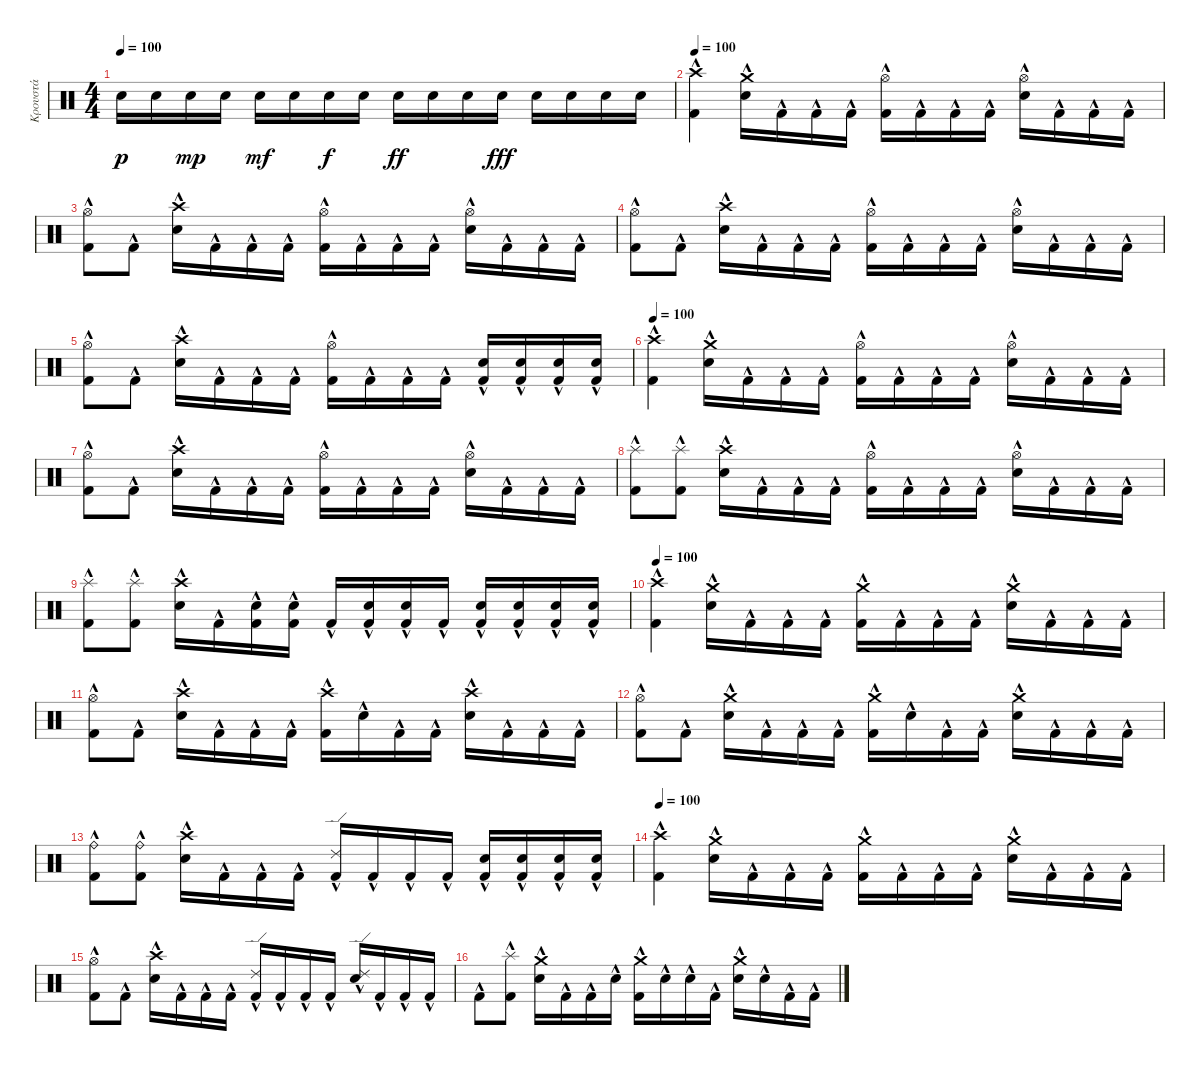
\track ("Κρουστά" "Κρουστά") {instrument percussion}
\staff {score}
\articulation defaults
\ts (4 4)
\tempo 100
\clef neutral
\ks c "Electric Snare (hit)".16{dy p} "Electric Snare (hit)".16 "Electric Snare (hit)".16{dy mp} "Electric Snare (hit)".16 "Electric Snare (hit)".16{dy mf} "Electric Snare (hit)".16 "Electric Snare (hit)".16{dy f} "Electric Snare (hit)".16 "Electric Snare (hit)".16{dy ff} "Electric Snare (hit)".16 "Electric Snare (hit)".16 "Electric Snare (hit)".16{dy fff} "Electric Snare (hit)".16 "Electric Snare (hit)".16 "Electric Snare (hit)".16 "Electric Snare (hit)".16
|
\tempo 100
("Kick (hit) 2"{hac} "Crash high (hit)").4 ("Electric Snare (hit)"{hac} "Crash medium (hit)").16 "Kick (hit) 2"{hac}.16 "Kick (hit) 2"{hac}.16 "Kick (hit) 2"{hac}.16 ("Kick (hit) 2"{hac} "Hi-Hat (open)").16 "Kick (hit) 2"{hac}.16 "Kick (hit) 2"{hac}.16 "Kick (hit) 2"{hac}.16 ("Electric Snare (hit)"{hac} "Hi-Hat (open)").16 "Kick (hit) 2"{hac}.16 "Kick (hit) 2"{hac}.16 "Kick (hit) 2"{hac}.16 |
("Kick (hit) 2"{hac} "Hi-Hat (open)").8 "Kick (hit) 2"{hac}.8 ("Electric Snare (hit)"{hac} "Crash high (hit)").16 "Kick (hit) 2"{hac}.16 "Kick (hit) 2"{hac}.16 "Kick (hit) 2"{hac}.16 ("Kick (hit) 2"{hac} "Hi-Hat (open)").16 "Kick (hit) 2"{hac}.16 "Kick (hit) 2"{hac}.16 "Kick (hit) 2"{hac}.16 ("Electric Snare (hit)"{hac} "Hi-Hat (open)").16 "Kick (hit) 2"{hac}.16 "Kick (hit) 2"{hac}.16 "Kick (hit) 2"{hac}.16 |
("Kick (hit) 2"{hac} "Hi-Hat (open)").8 "Kick (hit) 2"{hac}.8 ("Electric Snare (hit)"{hac} "Crash high (hit)").16 "Kick (hit) 2"{hac}.16 "Kick (hit) 2"{hac}.16 "Kick (hit) 2"{hac}.16 ("Kick (hit) 2"{hac} "Hi-Hat (open)").16 "Kick (hit) 2"{hac}.16 "Kick (hit) 2"{hac}.16 "Kick (hit) 2"{hac}.16 ("Electric Snare (hit)"{hac} "Hi-Hat (open)").16 "Kick (hit) 2"{hac}.16 "Kick (hit) 2"{hac}.16 "Kick (hit) 2"{hac}.16 |
("Kick (hit) 2"{hac} "Hi-Hat (open)").8 "Kick (hit) 2"{hac}.8 ("Electric Snare (hit)"{hac} "Crash high (hit)").16 "Kick (hit) 2"{hac}.16 "Kick (hit) 2"{hac}.16 "Kick (hit) 2"{hac}.16 ("Kick (hit) 2"{hac} "Hi-Hat (open)").16 "Kick (hit) 2"{hac}.16 "Kick (hit) 2"{hac}.16 "Kick (hit) 2"{hac}.16 ("Electric Snare (hit)"{hac} "Kick (hit) 2"{hac}).16 ("Kick (hit) 2"{hac} "Electric Snare (hit)"{hac}).16 ("Kick (hit) 2"{hac} "Electric Snare (hit)"{hac}).16 ("Kick (hit) 2"{hac} "Electric Snare (hit)"{hac}).16 |
\tempo 100
("Kick (hit) 2"{hac} "Crash high (hit)").4 ("Electric Snare (hit)"{hac} "Crash medium (hit)").16 "Kick (hit) 2"{hac}.16 "Kick (hit) 2"{hac}.16 "Kick (hit) 2"{hac}.16 ("Kick (hit) 2"{hac} "Hi-Hat (open)").16 "Kick (hit) 2"{hac}.16 "Kick (hit) 2"{hac}.16 "Kick (hit) 2"{hac}.16 ("Electric Snare (hit)"{hac} "Hi-Hat (open)").16 "Kick (hit) 2"{hac}.16 "Kick (hit) 2"{hac}.16 "Kick (hit) 2"{hac}.16 |
("Kick (hit) 2"{hac} "Hi-Hat (open)").8 "Kick (hit) 2"{hac}.8 ("Electric Snare (hit)"{hac} "Crash high (hit)").16 "Kick (hit) 2"{hac}.16 "Kick (hit) 2"{hac}.16 "Kick (hit) 2"{hac}.16 ("Kick (hit) 2"{hac} "Hi-Hat (open)").16 "Kick (hit) 2"{hac}.16 "Kick (hit) 2"{hac}.16 "Kick (hit) 2"{hac}.16 ("Electric Snare (hit)"{hac} "Hi-Hat (open)").16 "Kick (hit) 2"{hac}.16 "Kick (hit) 2"{hac}.16 "Kick (hit) 2"{hac}.16 |
("Kick (hit) 2"{hac} "Splash (hit)").8 ("Kick (hit) 2"{hac} "Splash (hit)").8 ("Electric Snare (hit)"{hac} "Crash high (hit)").16 "Kick (hit) 2"{hac}.16 "Kick (hit) 2"{hac}.16 "Kick (hit) 2"{hac}.16 ("Kick (hit) 2"{hac} "Hi-Hat (open)").16 "Kick (hit) 2"{hac}.16 "Kick (hit) 2"{hac}.16 "Kick (hit) 2"{hac}.16 ("Electric Snare (hit)"{hac} "Hi-Hat (open)").16 "Kick (hit) 2"{hac}.16 "Kick (hit) 2"{hac}.16 "Kick (hit) 2"{hac}.16 |
("Kick (hit) 2"{hac} "Splash (hit)").8 ("Kick (hit) 2"{hac} "Splash (hit)").8 ("Electric Snare (hit)"{hac} "Crash high (hit)").16 "Kick (hit) 2"{hac}.16 ("Kick (hit) 2"{hac} "Electric Snare (hit)"{hac}).16 ("Kick (hit) 2"{hac} "Electric Snare (hit)"{hac}).16 "Kick (hit) 2"{hac}.16 ("Kick (hit) 2"{hac} "Electric Snare (hit)"{hac}).16 ("Kick (hit) 2"{hac} "Electric Snare (hit)"{hac}).16 "Kick (hit) 2"{hac}.16 ("Electric Snare (hit)"{hac} "Kick (hit) 2"{hac}).16 ("Kick (hit) 2"{hac} "Electric Snare (hit)"{hac}).16 ("Kick (hit) 2"{hac} "Electric Snare (hit)"{hac}).16 ("Kick (hit) 2"{hac} "Electric Snare (hit)"{hac}).16 |
\tempo 100
("Kick (hit) 2"{hac} "Crash high (hit)").4 ("Electric Snare (hit)"{hac} "Crash medium (hit)").16 "Kick (hit) 2"{hac}.16 "Kick (hit) 2"{hac}.16 "Kick (hit) 2"{hac}.16 ("Kick (hit) 2"{hac} "Crash medium (hit)").16 "Kick (hit) 2"{hac}.16 "Kick (hit) 2"{hac}.16 "Kick (hit) 2"{hac}.16 ("Electric Snare (hit)"{hac} "Crash medium (hit)").16 "Kick (hit) 2"{hac}.16 "Kick (hit) 2"{hac}.16 "Kick (hit) 2"{hac}.16 |
("Kick (hit) 2"{hac} "Hi-Hat (open)").8 "Kick (hit) 2"{hac}.8 ("Electric Snare (hit)"{hac} "Crash high (hit)").16 "Kick (hit) 2"{hac}.16 "Kick (hit) 2"{hac}.16 "Kick (hit) 2"{hac}.16 ("Kick (hit) 2"{hac} "Crash high (hit)").16 "Electric Snare (hit)"{hac}.16 "Kick (hit) 2"{hac}.16 "Kick (hit) 2"{hac}.16 ("Electric Snare (hit)"{hac} "Crash high (hit)").16 "Kick (hit) 2"{hac}.16 "Kick (hit) 2"{hac}.16 "Kick (hit) 2"{hac}.16 |
("Kick (hit) 2"{hac} "Hi-Hat (open)").8 "Kick (hit) 2"{hac}.8 ("Electric Snare (hit)"{hac} "Crash medium (hit)").16 "Kick (hit) 2"{hac}.16 "Kick (hit) 2"{hac}.16 "Kick (hit) 2"{hac}.16 ("Kick (hit) 2"{hac} "Crash medium (hit)").16 "Electric Snare (hit)"{hac}.16 "Kick (hit) 2"{hac}.16 "Kick (hit) 2"{hac}.16 ("Electric Snare (hit)"{hac} "Crash medium (hit)").16 "Kick (hit) 2"{hac}.16 "Kick (hit) 2"{hac}.16 "Kick (hit) 2"{hac}.16 |
("Kick (hit) 2"{hac} "Ride (bell)"{hac}).8 ("Kick (hit) 2"{hac} "Ride (bell)"{hac}).8 ("Electric Snare (hit)"{hac} "Crash high (hit)").16 "Kick (hit) 2"{hac}.16 "Kick (hit) 2"{hac}.16 "Kick (hit) 2"{hac}.16 ("Kick (hit) 2"{hac} "Ride (edge) 2").16 "Kick (hit) 2"{hac}.16 "Kick (hit) 2"{hac}.16 "Kick (hit) 2"{hac}.16 ("Electric Snare (hit)"{hac} "Kick (hit) 2"{hac}).16 ("Kick (hit) 2"{hac} "Electric Snare (hit)"{hac}).16 ("Kick (hit) 2"{hac} "Electric Snare (hit)"{hac}).16 ("Kick (hit) 2"{hac} "Electric Snare (hit)"{hac}).16 |
\tempo 100
("Kick (hit) 2"{hac} "Crash high (hit)").4 ("Electric Snare (hit)"{hac} "Crash medium (hit)").16 "Kick (hit) 2"{hac}.16 "Kick (hit) 2"{hac}.16 "Kick (hit) 2"{hac}.16 ("Kick (hit) 2"{hac} "Crash medium (hit)").16 "Kick (hit) 2"{hac}.16 "Kick (hit) 2"{hac}.16 "Kick (hit) 2"{hac}.16 ("Electric Snare (hit)"{hac} "Crash medium (hit)").16 "Kick (hit) 2"{hac}.16 "Kick (hit) 2"{hac}.16 "Kick (hit) 2"{hac}.16 |
("Kick (hit) 2"{hac} "Hi-Hat (open)").8 "Kick (hit) 2"{hac}.8 ("Electric Snare (hit)"{hac} "Crash high (hit)").16 "Kick (hit) 2"{hac}.16 "Kick (hit) 2"{hac}.16 "Kick (hit) 2"{hac}.16 ("Kick (hit) 2"{hac} "Ride (edge) 2").16 "Kick (hit) 2"{hac}.16 "Kick (hit) 2"{hac}.16 "Kick (hit) 2"{hac}.16 ("Electric Snare (hit)"{hac} "Ride (edge) 2").16 "Kick (hit) 2"{hac}.16 "Kick (hit) 2"{hac}.16 "Kick (hit) 2"{hac}.16 |
"Kick (hit) 2"{hac}.8 ("Kick (hit) 2"{hac} "Splash (hit)").8 ("Electric Snare (hit)"{hac} "Crash medium (hit)").16 "Kick (hit) 2"{hac}.16 "Kick (hit) 2"{hac}.16 "Electric Snare (hit)"{hac}.16 ("Kick (hit) 2"{hac} "Crash medium (hit)").16 "Electric Snare (hit)"{hac}.16 "Electric Snare (hit)"{hac}.16 "Kick (hit) 2"{hac}.16 ("Electric Snare (hit)"{hac} "Crash medium (hit)").16 "Electric Snare (hit)"{hac}.16 "Kick (hit) 2"{hac}.16 "Kick (hit) 2"{hac}.16
